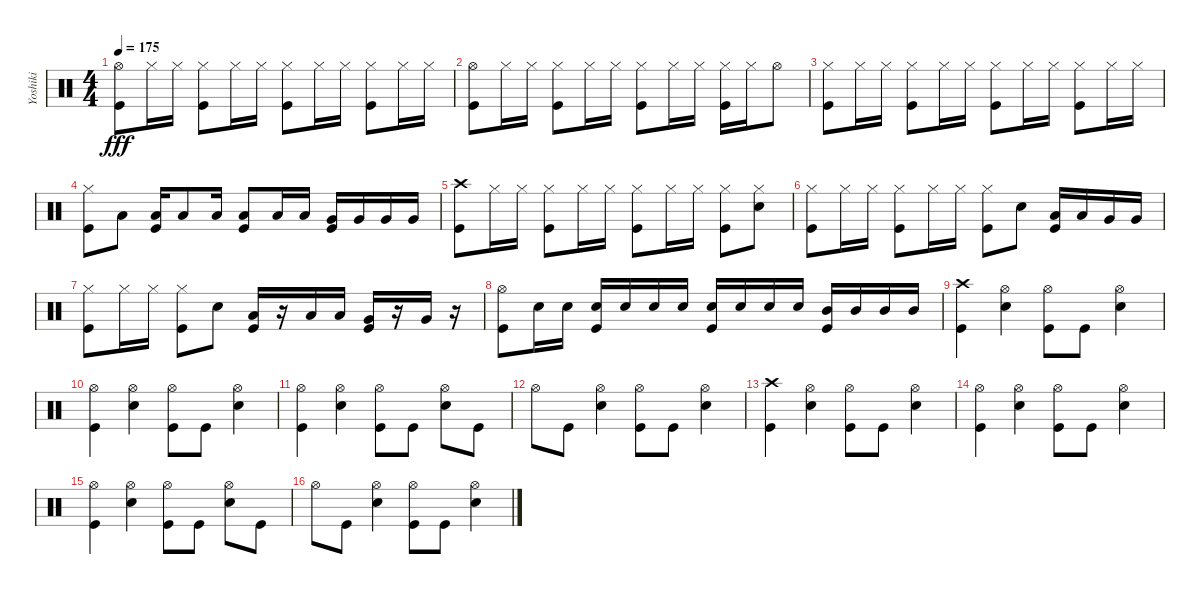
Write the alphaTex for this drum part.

\track ("Yoshiki" "Yoshiki") {instrument percussion}
\staff {score}
\articulation defaults
\ts (4 4)
\tempo 175
\clef neutral
\ks c
("Hi-Hat (open)" "Kick (hit)").8{dy fff} "Hi-Hat (closed)".16 "Hi-Hat (closed)".16 ("Hi-Hat (closed)" "Kick (hit)").8 "Hi-Hat (closed)".16 "Hi-Hat (closed)".16 ("Hi-Hat (closed)" "Kick (hit)").8 "Hi-Hat (closed)".16 "Hi-Hat (closed)".16 ("Hi-Hat (closed)" "Kick (hit)").8 "Hi-Hat (closed)".16 "Hi-Hat (closed)".16 |
("Hi-Hat (open)" "Kick (hit)").8 "Hi-Hat (closed)".16 "Hi-Hat (closed)".16 ("Hi-Hat (closed)" "Kick (hit)").8 "Hi-Hat (closed)".16 "Hi-Hat (closed)".16 ("Hi-Hat (closed)" "Kick (hit)").8 "Hi-Hat (closed)".16 "Hi-Hat (closed)".16 ("Hi-Hat (closed)" "Kick (hit)").16 "Hi-Hat (closed)".16 "Hi-Hat (open)".8 |
("Hi-Hat (closed)" "Kick (hit)").8 "Hi-Hat (closed)".16 "Hi-Hat (closed)".16 ("Hi-Hat (closed)" "Kick (hit)").8 "Hi-Hat (closed)".16 "Hi-Hat (closed)".16 ("Hi-Hat (closed)" "Kick (hit)").8 "Hi-Hat (closed)".16 "Hi-Hat (closed)".16 ("Hi-Hat (closed)" "Kick (hit)").8 "Hi-Hat (closed)".16 "Hi-Hat (closed)".16 |
("Hi-Hat (closed)" "Kick (hit)").8 "Low Tom (hit)".8 ("Low Tom (hit)" "Kick (hit)").16 "Low Tom (hit)".8 "Low Tom (hit)".16 ("Low Tom (hit)" "Kick (hit)").8 "Low Tom (hit)".16 "Low Tom (hit)".16 ("Very Low Tom (hit)" "Kick (hit)").16 "Very Low Tom (hit)".16 "Very Low Tom (hit)".16 "Very Low Tom (hit)".16 |
("Crash high (hit)" "Kick (hit)").8 "Hi-Hat (closed)".16 "Hi-Hat (closed)".16 ("Hi-Hat (closed)" "Kick (hit)").8 "Hi-Hat (closed)".16 "Hi-Hat (closed)".16 ("Hi-Hat (closed)" "Kick (hit)").8 "Hi-Hat (closed)".16 "Hi-Hat (closed)".16 ("Hi-Hat (closed)" "Kick (hit)").8 ("Hi-Hat (closed)" "Snare (hit) 2").8 |
("Hi-Hat (closed)" "Kick (hit)").8 "Hi-Hat (closed)".16 "Hi-Hat (closed)".16 ("Hi-Hat (closed)" "Kick (hit)").8 "Hi-Hat (closed)".16 "Hi-Hat (closed)".16 ("Hi-Hat (closed)" "Kick (hit)").8 "Snare (hit) 2".8 ("Low Tom (hit)" "Kick (hit)").16 "Low Tom (hit)".16 "Very Low Tom (hit)".16 "Very Low Tom (hit)".16 |
("Hi-Hat (closed)" "Kick (hit)").8 "Hi-Hat (closed)".16 "Hi-Hat (closed)".16 ("Hi-Hat (closed)" "Kick (hit)").8 "Snare (hit) 2".8 ("Low Tom (hit)" "Kick (hit)").16 r.16 "Low Tom (hit)".16 "Low Tom (hit)".16 ("Very Low Tom (hit)" "Kick (hit)").16 r.16 "Very Low Tom (hit)".16 r.16 |
("Hi-Hat (open)" "Kick (hit)").8 "Snare (hit) 2".16 "Snare (hit) 2".16 ("Snare (hit) 2" "Kick (hit)").16 "Snare (hit) 2".16 "Snare (hit) 2".16 "Snare (hit) 2".16 ("Snare (hit) 2" "Kick (hit)").16 "Snare (hit) 2".16 "Snare (hit) 2".16 "Snare (hit) 2".16 ("Mid Tom (hit)" "Kick (hit)").16 "Mid Tom (hit)".16 "Mid Tom (hit)".16 "Mid Tom (hit)".16 |
("Crash high (hit)" "Kick (hit)").4 ("Hi-Hat (open)" "Snare (hit) 2").4 ("Hi-Hat (open)" "Kick (hit)").8 "Kick (hit)".8 ("Hi-Hat (open)" "Snare (hit) 2").4 |
("Hi-Hat (open)" "Kick (hit)").4 ("Hi-Hat (open)" "Snare (hit) 2").4 ("Hi-Hat (open)" "Kick (hit)").8 "Kick (hit)".8 ("Hi-Hat (open)" "Snare (hit) 2").4 |
("Hi-Hat (open)" "Kick (hit)").4 ("Hi-Hat (open)" "Snare (hit) 2").4 ("Hi-Hat (open)" "Kick (hit)").8 "Kick (hit)".8 ("Hi-Hat (open)" "Snare (hit) 2").8 "Kick (hit)".8 |
"Hi-Hat (open)".8 "Kick (hit)".8 ("Hi-Hat (open)" "Snare (hit) 2").4 ("Hi-Hat (open)" "Kick (hit)").8 "Kick (hit)".8 ("Hi-Hat (open)" "Snare (hit) 2").4 |
("Crash high (hit)" "Kick (hit)").4 ("Hi-Hat (open)" "Snare (hit) 2").4 ("Hi-Hat (open)" "Kick (hit)").8 "Kick (hit)".8 ("Hi-Hat (open)" "Snare (hit) 2").4 |
("Hi-Hat (open)" "Kick (hit)").4 ("Hi-Hat (open)" "Snare (hit) 2").4 ("Hi-Hat (open)" "Kick (hit)").8 "Kick (hit)".8 ("Hi-Hat (open)" "Snare (hit) 2").4 |
("Hi-Hat (open)" "Kick (hit)").4 ("Hi-Hat (open)" "Snare (hit) 2").4 ("Hi-Hat (open)" "Kick (hit)").8 "Kick (hit)".8 ("Hi-Hat (open)" "Snare (hit) 2").8 "Kick (hit)".8 |
"Hi-Hat (open)".8 "Kick (hit)".8 ("Hi-Hat (open)" "Snare (hit) 2").4 ("Hi-Hat (open)" "Kick (hit)").8 "Kick (hit)".8 ("Hi-Hat (open)" "Snare (hit) 2").4
